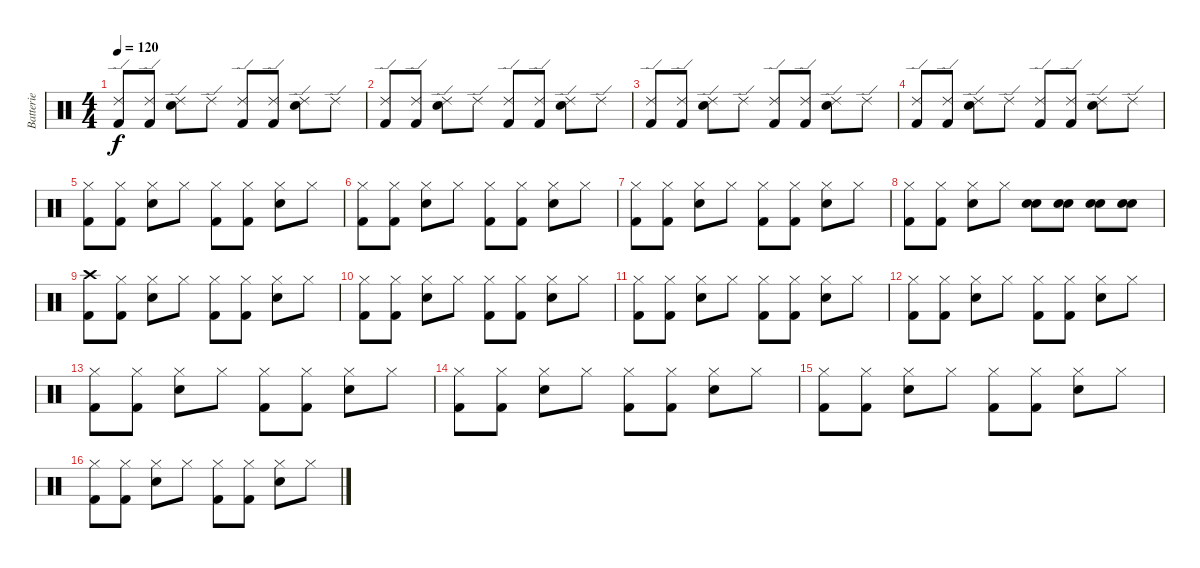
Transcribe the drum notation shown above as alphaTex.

\track ("Batterie" "Batterie") {instrument percussion}
\staff {score}
\articulation defaults
\ts (4 4)
\tempo 120
\clef neutral
\ks c
("Ride (edge) 2" "Kick (hit) 2").8{dy f} ("Ride (edge) 2" "Kick (hit) 2").8 ("Ride (edge) 2" "Electric Snare (hit)").8 "Ride (edge) 2".8 ("Ride (edge) 2" "Kick (hit) 2").8 ("Ride (edge) 2" "Kick (hit) 2").8 ("Ride (edge) 2" "Electric Snare (hit)").8 "Ride (edge) 2".8 |
("Ride (edge) 2" "Kick (hit) 2").8 ("Ride (edge) 2" "Kick (hit) 2").8 ("Ride (edge) 2" "Electric Snare (hit)").8 "Ride (edge) 2".8 ("Ride (edge) 2" "Kick (hit) 2").8 ("Ride (edge) 2" "Kick (hit) 2").8 ("Ride (edge) 2" "Electric Snare (hit)").8 "Ride (edge) 2".8 |
("Ride (edge) 2" "Kick (hit) 2").8 ("Ride (edge) 2" "Kick (hit) 2").8 ("Ride (edge) 2" "Electric Snare (hit)").8 "Ride (edge) 2".8 ("Ride (edge) 2" "Kick (hit) 2").8 ("Ride (edge) 2" "Kick (hit) 2").8 ("Ride (edge) 2" "Electric Snare (hit)").8 "Ride (edge) 2".8 |
("Ride (edge) 2" "Kick (hit) 2").8 ("Ride (edge) 2" "Kick (hit) 2").8 ("Ride (edge) 2" "Electric Snare (hit)").8 "Ride (edge) 2".8 ("Ride (edge) 2" "Kick (hit) 2").8 ("Ride (edge) 2" "Kick (hit) 2").8 ("Ride (edge) 2" "Electric Snare (hit)").8 "Ride (edge) 2".8 |
("Hi-Hat (closed)" "Kick (hit) 2").8 ("Hi-Hat (closed)" "Kick (hit) 2").8 ("Hi-Hat (closed)" "Electric Snare (hit)").8 "Hi-Hat (closed)".8 ("Hi-Hat (closed)" "Kick (hit) 2").8 ("Hi-Hat (closed)" "Kick (hit) 2").8 ("Hi-Hat (closed)" "Electric Snare (hit)").8 "Hi-Hat (closed)".8 |
("Hi-Hat (closed)" "Kick (hit) 2").8 ("Hi-Hat (closed)" "Kick (hit) 2").8 ("Hi-Hat (closed)" "Electric Snare (hit)").8 "Hi-Hat (closed)".8 ("Hi-Hat (closed)" "Kick (hit) 2").8 ("Hi-Hat (closed)" "Kick (hit) 2").8 ("Hi-Hat (closed)" "Electric Snare (hit)").8 "Hi-Hat (closed)".8 |
("Hi-Hat (closed)" "Kick (hit) 2").8 ("Hi-Hat (closed)" "Kick (hit) 2").8 ("Hi-Hat (closed)" "Electric Snare (hit)").8 "Hi-Hat (closed)".8 ("Hi-Hat (closed)" "Kick (hit) 2").8 ("Hi-Hat (closed)" "Kick (hit) 2").8 ("Hi-Hat (closed)" "Electric Snare (hit)").8 "Hi-Hat (closed)".8 |
("Hi-Hat (closed)" "Kick (hit) 2").8 ("Hi-Hat (closed)" "Kick (hit) 2").8 ("Hi-Hat (closed)" "Electric Snare (hit)").8 "Hi-Hat (closed)".8 ("Electric Snare (hit)" "Electric Snare (hit)").8 ("Electric Snare (hit)" "Electric Snare (hit)").8 ("Electric Snare (hit)" "Electric Snare (hit)").8 ("Electric Snare (hit)" "Electric Snare (hit)").8 |
("Crash high (hit)" "Kick (hit) 2").8 ("Hi-Hat (closed)" "Kick (hit) 2").8 ("Hi-Hat (closed)" "Electric Snare (hit)").8 "Hi-Hat (closed)".8 ("Hi-Hat (closed)" "Kick (hit) 2").8 ("Hi-Hat (closed)" "Kick (hit) 2").8 ("Hi-Hat (closed)" "Electric Snare (hit)").8 "Hi-Hat (closed)".8 |
("Hi-Hat (closed)" "Kick (hit) 2").8 ("Hi-Hat (closed)" "Kick (hit) 2").8 ("Hi-Hat (closed)" "Electric Snare (hit)").8 "Hi-Hat (closed)".8 ("Hi-Hat (closed)" "Kick (hit) 2").8 ("Hi-Hat (closed)" "Kick (hit) 2").8 ("Hi-Hat (closed)" "Electric Snare (hit)").8 "Hi-Hat (closed)".8 |
("Hi-Hat (closed)" "Kick (hit) 2").8 ("Hi-Hat (closed)" "Kick (hit) 2").8 ("Hi-Hat (closed)" "Electric Snare (hit)").8 "Hi-Hat (closed)".8 ("Hi-Hat (closed)" "Kick (hit) 2").8 ("Hi-Hat (closed)" "Kick (hit) 2").8 ("Hi-Hat (closed)" "Electric Snare (hit)").8 "Hi-Hat (closed)".8 |
("Hi-Hat (closed)" "Kick (hit) 2").8 ("Hi-Hat (closed)" "Kick (hit) 2").8 ("Hi-Hat (closed)" "Electric Snare (hit)").8 "Hi-Hat (closed)".8 ("Hi-Hat (closed)" "Kick (hit) 2").8 ("Hi-Hat (closed)" "Kick (hit) 2").8 ("Hi-Hat (closed)" "Electric Snare (hit)").8 "Hi-Hat (closed)".8 |
("Hi-Hat (closed)" "Kick (hit) 2").8 ("Hi-Hat (closed)" "Kick (hit) 2").8 ("Hi-Hat (closed)" "Electric Snare (hit)").8 "Hi-Hat (closed)".8 ("Hi-Hat (closed)" "Kick (hit) 2").8 ("Hi-Hat (closed)" "Kick (hit) 2").8 ("Hi-Hat (closed)" "Electric Snare (hit)").8 "Hi-Hat (closed)".8 |
("Hi-Hat (closed)" "Kick (hit) 2").8 ("Hi-Hat (closed)" "Kick (hit) 2").8 ("Hi-Hat (closed)" "Electric Snare (hit)").8 "Hi-Hat (closed)".8 ("Hi-Hat (closed)" "Kick (hit) 2").8 ("Hi-Hat (closed)" "Kick (hit) 2").8 ("Hi-Hat (closed)" "Electric Snare (hit)").8 "Hi-Hat (closed)".8 |
("Hi-Hat (closed)" "Kick (hit) 2").8 ("Hi-Hat (closed)" "Kick (hit) 2").8 ("Hi-Hat (closed)" "Electric Snare (hit)").8 "Hi-Hat (closed)".8 ("Hi-Hat (closed)" "Kick (hit) 2").8 ("Hi-Hat (closed)" "Kick (hit) 2").8 ("Hi-Hat (closed)" "Electric Snare (hit)").8 "Hi-Hat (closed)".8 |
("Hi-Hat (closed)" "Kick (hit) 2").8 ("Hi-Hat (closed)" "Kick (hit) 2").8 ("Hi-Hat (closed)" "Electric Snare (hit)").8 "Hi-Hat (closed)".8 ("Hi-Hat (closed)" "Kick (hit) 2").8 ("Hi-Hat (closed)" "Kick (hit) 2").8 ("Hi-Hat (closed)" "Electric Snare (hit)").8 "Hi-Hat (closed)".8
